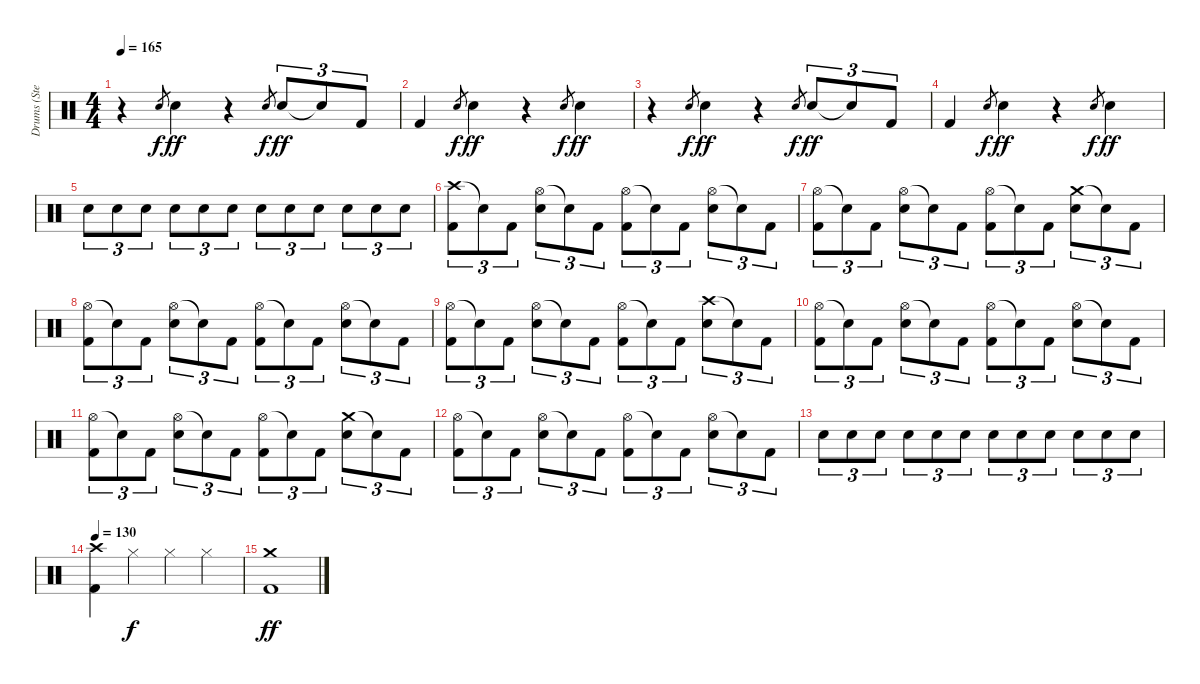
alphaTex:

\track ("Drums (Steven)" "Drums (Ste") {instrument percussion}
\staff {score}
\articulation defaults
\ts (4 4)
\tempo 165
\clef neutral
\ks c
r.4{dy ff} "Snare (hit) 2".8{gr dy f} "Snare (hit) 2".4{dy ff} r.4 "Snare (hit) 2".8{gr dy f} "Snare (hit) 2".8{tu (3 2) dy ff} "Snare (hit)"{t}.8{tu (3 2)} "Kick (hit) 2".8{tu (3 2)} |
"Kick (hit) 2".4 "Snare (hit) 2".8{gr dy f} "Snare (hit) 2".4{dy ff} r.4 "Snare (hit) 2".8{gr dy f} "Snare (hit) 2".4{dy ff} |
r.4 "Snare (hit) 2".8{gr dy f} "Snare (hit) 2".4{dy ff} r.4 "Snare (hit) 2".8{gr dy f} "Snare (hit) 2".8{tu (3 2) dy ff} "Snare (hit)"{t}.8{tu (3 2)} "Kick (hit) 2".8{tu (3 2)} |
"Kick (hit) 2".4 "Snare (hit) 2".8{gr dy f} "Snare (hit) 2".4{dy ff} r.4 "Snare (hit) 2".8{gr dy f} "Snare (hit) 2".4{dy ff} |
"Snare (hit) 2".8{tu (3 2)} "Snare (hit) 2".8{tu (3 2)} "Snare (hit) 2".8{tu (3 2)} "Snare (hit) 2".8{tu (3 2)} "Snare (hit) 2".8{tu (3 2)} "Snare (hit) 2".8{tu (3 2)} "Snare (hit) 2".8{tu (3 2)} "Snare (hit) 2".8{tu (3 2)} "Snare (hit) 2".8{tu (3 2)} "Snare (hit) 2".8{tu (3 2)} "Snare (hit) 2".8{tu (3 2)} "Snare (hit) 2".8{tu (3 2)} |
("Crash high (hit)" "Kick (hit) 2").8{tu (3 2)} "Snare (hit)"{t}.8{tu (3 2)} "Kick (hit) 2".8{tu (3 2)} ("Hi-Hat (open)" "Snare (hit) 2").8{tu (3 2)} "Snare (hit)"{t}.8{tu (3 2)} "Kick (hit) 2".8{tu (3 2)} ("Hi-Hat (open)" "Kick (hit) 2").8{tu (3 2)} "Snare (hit)"{t}.8{tu (3 2)} "Kick (hit) 2".8{tu (3 2)} ("Hi-Hat (open)" "Snare (hit) 2").8{tu (3 2)} "Snare (hit)"{t}.8{tu (3 2)} "Kick (hit) 2".8{tu (3 2)} |
("Hi-Hat (open)" "Kick (hit) 2").8{tu (3 2)} "Snare (hit)"{t}.8{tu (3 2)} "Kick (hit) 2".8{tu (3 2)} ("Hi-Hat (open)" "Snare (hit) 2").8{tu (3 2)} "Snare (hit)"{t}.8{tu (3 2)} "Kick (hit) 2".8{tu (3 2)} ("Hi-Hat (open)" "Kick (hit) 2").8{tu (3 2)} "Snare (hit)"{t}.8{tu (3 2)} "Kick (hit) 2".8{tu (3 2)} ("Crash medium (hit)" "Snare (hit) 2").8{tu (3 2)} "Snare (hit)"{t}.8{tu (3 2)} "Kick (hit) 2".8{tu (3 2)} |
("Hi-Hat (open)" "Kick (hit) 2").8{tu (3 2)} "Snare (hit)"{t}.8{tu (3 2)} "Kick (hit) 2".8{tu (3 2)} ("Hi-Hat (open)" "Snare (hit) 2").8{tu (3 2)} "Snare (hit)"{t}.8{tu (3 2)} "Kick (hit) 2".8{tu (3 2)} ("Hi-Hat (open)" "Kick (hit) 2").8{tu (3 2)} "Snare (hit)"{t}.8{tu (3 2)} "Kick (hit) 2".8{tu (3 2)} ("Hi-Hat (open)" "Snare (hit) 2").8{tu (3 2)} "Snare (hit)"{t}.8{tu (3 2)} "Kick (hit) 2".8{tu (3 2)} |
("Hi-Hat (open)" "Kick (hit) 2").8{tu (3 2)} "Snare (hit)"{t}.8{tu (3 2)} "Kick (hit) 2".8{tu (3 2)} ("Hi-Hat (open)" "Snare (hit) 2").8{tu (3 2)} "Snare (hit)"{t}.8{tu (3 2)} "Kick (hit) 2".8{tu (3 2)} ("Hi-Hat (open)" "Kick (hit) 2").8{tu (3 2)} "Snare (hit)"{t}.8{tu (3 2)} "Kick (hit) 2".8{tu (3 2)} ("Crash high (hit)" "Snare (hit) 2").8{tu (3 2)} "Snare (hit)"{t}.8{tu (3 2)} "Kick (hit) 2".8{tu (3 2)} |
("Hi-Hat (open)" "Kick (hit) 2").8{tu (3 2)} "Snare (hit)"{t}.8{tu (3 2)} "Kick (hit) 2".8{tu (3 2)} ("Hi-Hat (open)" "Snare (hit) 2").8{tu (3 2)} "Snare (hit)"{t}.8{tu (3 2)} "Kick (hit) 2".8{tu (3 2)} ("Hi-Hat (open)" "Kick (hit) 2").8{tu (3 2)} "Snare (hit)"{t}.8{tu (3 2)} "Kick (hit) 2".8{tu (3 2)} ("Hi-Hat (open)" "Snare (hit) 2").8{tu (3 2)} "Snare (hit)"{t}.8{tu (3 2)} "Kick (hit) 2".8{tu (3 2)} |
("Hi-Hat (open)" "Kick (hit) 2").8{tu (3 2)} "Snare (hit)"{t}.8{tu (3 2)} "Kick (hit) 2".8{tu (3 2)} ("Hi-Hat (open)" "Snare (hit) 2").8{tu (3 2)} "Snare (hit)"{t}.8{tu (3 2)} "Kick (hit) 2".8{tu (3 2)} ("Hi-Hat (open)" "Kick (hit) 2").8{tu (3 2)} "Snare (hit)"{t}.8{tu (3 2)} "Kick (hit) 2".8{tu (3 2)} ("Crash medium (hit)" "Snare (hit) 2").8{tu (3 2)} "Snare (hit)"{t}.8{tu (3 2)} "Kick (hit) 2".8{tu (3 2)} |
("Hi-Hat (open)" "Kick (hit) 2").8{tu (3 2)} "Snare (hit)"{t}.8{tu (3 2)} "Kick (hit) 2".8{tu (3 2)} ("Hi-Hat (open)" "Snare (hit) 2").8{tu (3 2)} "Snare (hit)"{t}.8{tu (3 2)} "Kick (hit) 2".8{tu (3 2)} ("Hi-Hat (open)" "Kick (hit) 2").8{tu (3 2)} "Snare (hit)"{t}.8{tu (3 2)} "Kick (hit) 2".8{tu (3 2)} ("Hi-Hat (open)" "Snare (hit) 2").8{tu (3 2)} "Snare (hit)"{t}.8{tu (3 2)} "Kick (hit) 2".8{tu (3 2)} |
"Snare (hit) 2".8{tu (3 2)} "Snare (hit) 2".8{tu (3 2)} "Snare (hit) 2".8{tu (3 2)} "Snare (hit) 2".8{tu (3 2)} "Snare (hit) 2".8{tu (3 2)} "Snare (hit) 2".8{tu (3 2)} "Snare (hit) 2".8{tu (3 2)} "Snare (hit) 2".8{tu (3 2)} "Snare (hit) 2".8{tu (3 2)} "Snare (hit) 2".8{tu (3 2)} "Snare (hit) 2".8{tu (3 2)} "Snare (hit) 2".8{tu (3 2)} |
\tempo 130
("Crash high (hit)" "Kick (hit) 2").4 "Hi-Hat (closed)".4{dy f} "Hi-Hat (closed)".4 "Hi-Hat (closed)".4 |
("Crash medium (hit)" "Kick (hit) 2").1{dy ff}
